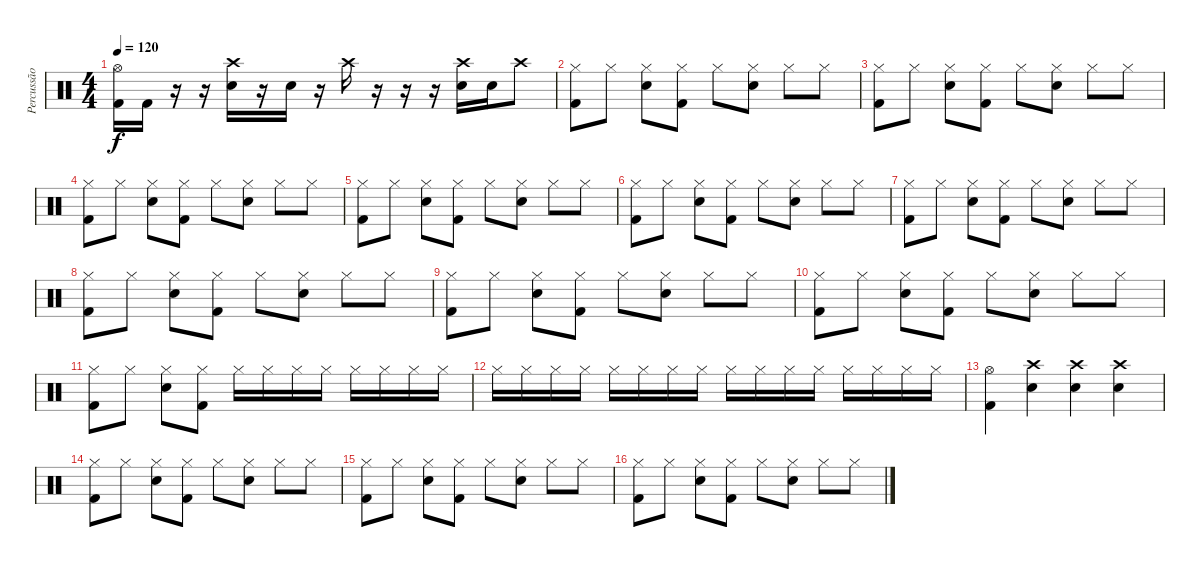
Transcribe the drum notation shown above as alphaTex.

\track ("Percussão" "Percussão") {instrument percussion}
\staff {score}
\articulation defaults
\ts (4 4)
\tempo 120
\clef neutral
\ks c
("Hi-Hat (open)" "Kick (hit) 2").16{dy f} "Kick (hit) 2".16 r.16 r.16 ("Crash high (hit)" "Electric Snare (hit)").16 r.16 "Electric Snare (hit)".16 r.16 "Crash high (hit)".16 r.16 r.16 r.16 ("Crash high (hit)" "Electric Snare (hit)").16 "Electric Snare (hit)".16 "Crash high (hit)".8 |
("Hi-Hat (closed)" "Kick (hit) 2").8 "Hi-Hat (closed)".8 ("Hi-Hat (closed)" "Electric Snare (hit)").8 ("Hi-Hat (closed)" "Kick (hit) 2").8 "Hi-Hat (closed)".8 ("Hi-Hat (closed)" "Electric Snare (hit)").8 "Hi-Hat (closed)".8 "Hi-Hat (closed)".8 |
("Hi-Hat (closed)" "Kick (hit) 2").8 "Hi-Hat (closed)".8 ("Hi-Hat (closed)" "Electric Snare (hit)").8 ("Hi-Hat (closed)" "Kick (hit) 2").8 "Hi-Hat (closed)".8 ("Hi-Hat (closed)" "Electric Snare (hit)").8 "Hi-Hat (closed)".8 "Hi-Hat (closed)".8 |
("Hi-Hat (closed)" "Kick (hit) 2").8 "Hi-Hat (closed)".8 ("Hi-Hat (closed)" "Electric Snare (hit)").8 ("Hi-Hat (closed)" "Kick (hit) 2").8 "Hi-Hat (closed)".8 ("Hi-Hat (closed)" "Electric Snare (hit)").8 "Hi-Hat (closed)".8 "Hi-Hat (closed)".8 |
("Hi-Hat (closed)" "Kick (hit) 2").8 "Hi-Hat (closed)".8 ("Hi-Hat (closed)" "Electric Snare (hit)").8 ("Hi-Hat (closed)" "Kick (hit) 2").8 "Hi-Hat (closed)".8 ("Hi-Hat (closed)" "Electric Snare (hit)").8 "Hi-Hat (closed)".8 "Hi-Hat (closed)".8 |
("Hi-Hat (closed)" "Kick (hit) 2").8 "Hi-Hat (closed)".8 ("Hi-Hat (closed)" "Electric Snare (hit)").8 ("Hi-Hat (closed)" "Kick (hit) 2").8 "Hi-Hat (closed)".8 ("Hi-Hat (closed)" "Electric Snare (hit)").8 "Hi-Hat (closed)".8 "Hi-Hat (closed)".8 |
("Hi-Hat (closed)" "Kick (hit) 2").8 "Hi-Hat (closed)".8 ("Hi-Hat (closed)" "Electric Snare (hit)").8 ("Hi-Hat (closed)" "Kick (hit) 2").8 "Hi-Hat (closed)".8 ("Hi-Hat (closed)" "Electric Snare (hit)").8 "Hi-Hat (closed)".8 "Hi-Hat (closed)".8 |
("Hi-Hat (closed)" "Kick (hit) 2").8 "Hi-Hat (closed)".8 ("Hi-Hat (closed)" "Electric Snare (hit)").8 ("Hi-Hat (closed)" "Kick (hit) 2").8 "Hi-Hat (closed)".8 ("Hi-Hat (closed)" "Electric Snare (hit)").8 "Hi-Hat (closed)".8 "Hi-Hat (closed)".8 |
("Hi-Hat (closed)" "Kick (hit) 2").8 "Hi-Hat (closed)".8 ("Hi-Hat (closed)" "Electric Snare (hit)").8 ("Hi-Hat (closed)" "Kick (hit) 2").8 "Hi-Hat (closed)".8 ("Hi-Hat (closed)" "Electric Snare (hit)").8 "Hi-Hat (closed)".8 "Hi-Hat (closed)".8 |
("Hi-Hat (closed)" "Kick (hit) 2").8 "Hi-Hat (closed)".8 ("Hi-Hat (closed)" "Electric Snare (hit)").8 ("Hi-Hat (closed)" "Kick (hit) 2").8 "Hi-Hat (closed)".8 ("Hi-Hat (closed)" "Electric Snare (hit)").8 "Hi-Hat (closed)".8 "Hi-Hat (closed)".8 |
("Hi-Hat (closed)" "Kick (hit) 2").8 "Hi-Hat (closed)".8 ("Hi-Hat (closed)" "Electric Snare (hit)").8 ("Hi-Hat (closed)" "Kick (hit) 2").8 "Hi-Hat (closed)".16 "Hi-Hat (closed)".16 "Hi-Hat (closed)".16 "Hi-Hat (closed)".16 "Hi-Hat (closed)".16 "Hi-Hat (closed)".16 "Hi-Hat (closed)".16 "Hi-Hat (closed)".16 |
"Hi-Hat (closed)".16 "Hi-Hat (closed)".16 "Hi-Hat (closed)".16 "Hi-Hat (closed)".16 "Hi-Hat (closed)".16 "Hi-Hat (closed)".16 "Hi-Hat (closed)".16 "Hi-Hat (closed)".16 "Hi-Hat (closed)".16 "Hi-Hat (closed)".16 "Hi-Hat (closed)".16 "Hi-Hat (closed)".16 "Hi-Hat (closed)".16 "Hi-Hat (closed)".16 "Hi-Hat (closed)".16 "Hi-Hat (closed)".16 |
("Hi-Hat (open)" "Kick (hit) 2").4 ("Crash high (hit)" "Electric Snare (hit)").4 ("Crash high (hit)" "Electric Snare (hit)").4 ("Crash high (hit)" "Electric Snare (hit)").4 |
("Hi-Hat (closed)" "Kick (hit) 2").8 "Hi-Hat (closed)".8 ("Hi-Hat (closed)" "Electric Snare (hit)").8 ("Hi-Hat (closed)" "Kick (hit) 2").8 "Hi-Hat (closed)".8 ("Hi-Hat (closed)" "Electric Snare (hit)").8 "Hi-Hat (closed)".8 "Hi-Hat (closed)".8 |
("Hi-Hat (closed)" "Kick (hit) 2").8 "Hi-Hat (closed)".8 ("Hi-Hat (closed)" "Electric Snare (hit)").8 ("Hi-Hat (closed)" "Kick (hit) 2").8 "Hi-Hat (closed)".8 ("Hi-Hat (closed)" "Electric Snare (hit)").8 "Hi-Hat (closed)".8 "Hi-Hat (closed)".8 |
("Hi-Hat (closed)" "Kick (hit) 2").8 "Hi-Hat (closed)".8 ("Hi-Hat (closed)" "Electric Snare (hit)").8 ("Hi-Hat (closed)" "Kick (hit) 2").8 "Hi-Hat (closed)".8 ("Hi-Hat (closed)" "Electric Snare (hit)").8 "Hi-Hat (closed)".8 "Hi-Hat (closed)".8
